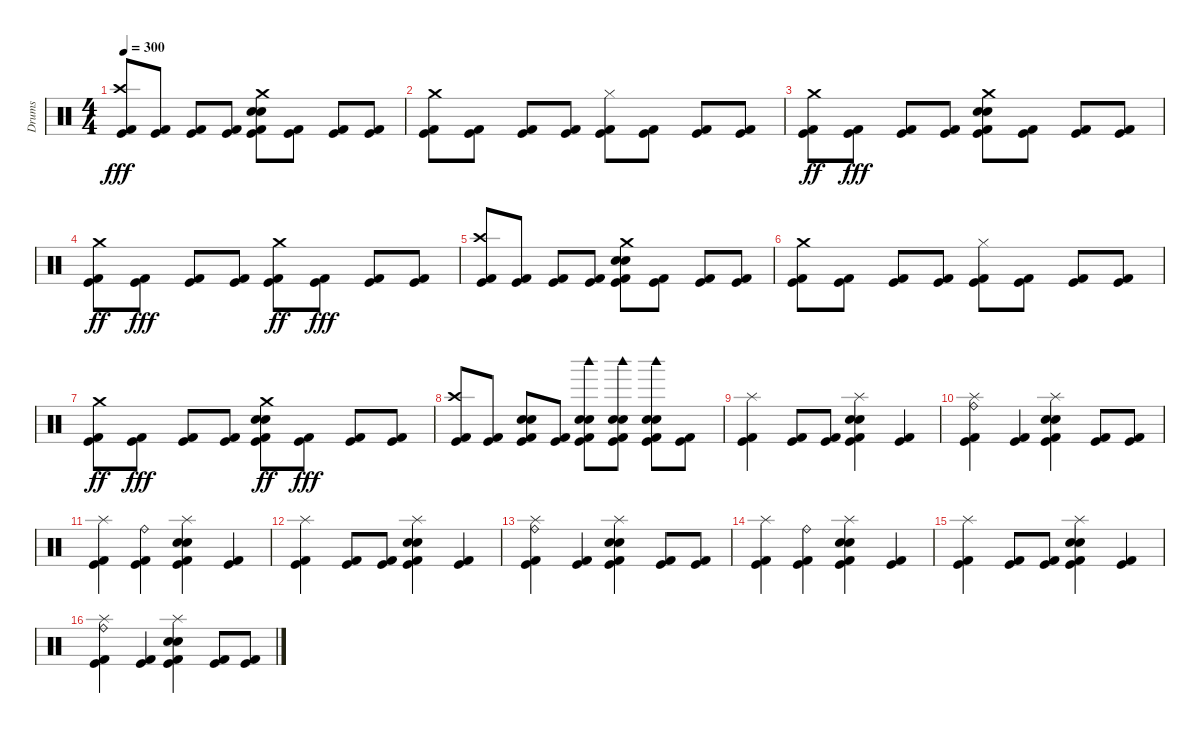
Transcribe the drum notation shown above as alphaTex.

\track ("Drums" "Drums") {instrument percussion}
\staff {score}
\articulation defaults
\ts (4 4)
\tempo 300
\clef neutral
\ks c
("Kick (hit) 2" "Crash high (hit)" "Kick (hit)").8{dy fff} ("Kick (hit) 2" "Kick (hit)").8 ("Kick (hit) 2" "Kick (hit)").8 ("Kick (hit) 2" "Kick (hit)").8 ("Kick (hit) 2" "Snare (hit) 2" "Electric Snare (hit)" "Crash medium (hit)" "Kick (hit)").8 ("Kick (hit) 2" "Kick (hit)").8 ("Kick (hit) 2" "Kick (hit)").8 ("Kick (hit) 2" "Kick (hit)").8 |
("Kick (hit) 2" "Crash medium (hit)" "Kick (hit)").8 ("Kick (hit) 2" "Kick (hit)").8 ("Kick (hit) 2" "Kick (hit)").8 ("Kick (hit) 2" "Kick (hit)").8 ("Kick (hit) 2" "Hi-Hat (closed)" "Kick (hit)").8 ("Kick (hit) 2" "Kick (hit)").8 ("Kick (hit) 2" "Kick (hit)").8 ("Kick (hit) 2" "Kick (hit)").8 |
("Kick (hit) 2" "Kick (hit)" "Crash medium (hit)").8{dy ff} ("Kick (hit) 2" "Kick (hit)").8{dy fff} ("Kick (hit) 2" "Kick (hit)").8 ("Kick (hit) 2" "Kick (hit)").8 ("Kick (hit) 2" "Crash medium (hit)" "Snare (hit) 2" "Electric Snare (hit)" "Kick (hit)").8 ("Kick (hit) 2" "Kick (hit)").8 ("Kick (hit) 2" "Kick (hit)").8 ("Kick (hit) 2" "Kick (hit)").8 |
("Kick (hit) 2" "Kick (hit)" "Crash medium (hit)").8{dy ff} ("Kick (hit) 2" "Kick (hit)").8{dy fff} ("Kick (hit) 2" "Kick (hit)").8 ("Kick (hit) 2" "Kick (hit)").8 ("Kick (hit) 2" "Kick (hit)" "Crash medium (hit)").8{dy ff} ("Kick (hit) 2" "Kick (hit)").8{dy fff} ("Kick (hit) 2" "Kick (hit)").8 ("Kick (hit) 2" "Kick (hit)").8 |
("Kick (hit) 2" "Kick (hit)" "Crash high (hit)").8 ("Kick (hit) 2" "Kick (hit)").8 ("Kick (hit) 2" "Kick (hit)").8 ("Kick (hit) 2" "Kick (hit)").8 ("Kick (hit) 2" "Kick (hit)" "Electric Snare (hit)" "Crash medium (hit)" "Snare (hit) 2").8 ("Kick (hit) 2" "Kick (hit)").8 ("Kick (hit) 2" "Kick (hit)").8 ("Kick (hit) 2" "Kick (hit)").8 |
("Kick (hit) 2" "Crash medium (hit)" "Kick (hit)").8 ("Kick (hit) 2" "Kick (hit)").8 ("Kick (hit) 2" "Kick (hit)").8 ("Kick (hit) 2" "Kick (hit)").8 ("Kick (hit) 2" "Hi-Hat (closed)" "Kick (hit)").8 ("Kick (hit) 2" "Kick (hit)").8 ("Kick (hit) 2" "Kick (hit)").8 ("Kick (hit) 2" "Kick (hit)").8 |
("Kick (hit) 2" "Kick (hit)" "Crash medium (hit)").8{dy ff} ("Kick (hit) 2" "Kick (hit)").8{dy fff} ("Kick (hit) 2" "Kick (hit)").8 ("Kick (hit) 2" "Kick (hit)").8 ("Kick (hit) 2" "Kick (hit)" "Snare (hit) 2" "Electric Snare (hit)" "Crash medium (hit)").8{dy ff} ("Kick (hit) 2" "Kick (hit)").8{dy fff} ("Kick (hit) 2" "Kick (hit)").8 ("Kick (hit) 2" "Kick (hit)").8 |
("Kick (hit) 2" "Crash high (hit)" "Kick (hit)").8 ("Kick (hit) 2" "Kick (hit)").8 ("Kick (hit) 2" "Electric Snare (hit)" "Snare (hit) 2" "Kick (hit)").8 ("Kick (hit) 2" "Kick (hit)").8 ("Kick (hit) 2" "Woodblock high (hit)" "Snare (hit) 2" "Electric Snare (hit)" "Kick (hit)").8 ("Kick (hit) 2" "Woodblock high (hit)" "Snare (hit) 2" "Electric Snare (hit)" "Kick (hit)").8 ("Kick (hit) 2" "Woodblock high (hit)" "Snare (hit) 2" "Electric Snare (hit)" "Kick (hit)").8 ("Kick (hit) 2" "Kick (hit)").8 |
("Kick (hit) 2" "Splash (hit)" "Kick (hit)").4 ("Kick (hit) 2" "Kick (hit)").8 ("Kick (hit) 2" "Kick (hit)").8 ("Kick (hit) 2" "Snare (hit) 2" "Electric Snare (hit)" "Splash (hit)" "Kick (hit)").4 ("Kick (hit) 2" "Kick (hit)").4 |
("Kick (hit) 2" "Ride (bell)" "Splash (hit)" "Kick (hit)").4 ("Kick (hit) 2" "Kick (hit)").4 ("Kick (hit) 2" "Electric Snare (hit)" "Snare (hit) 2" "Splash (hit)" "Kick (hit)").4 ("Kick (hit) 2" "Kick (hit)").8 ("Kick (hit) 2" "Kick (hit)").8 |
("Kick (hit) 2" "Splash (hit)" "Kick (hit)").4 ("Kick (hit) 2" "Ride (bell)" "Kick (hit)").4 ("Kick (hit) 2" "Snare (hit) 2" "Electric Snare (hit)" "Splash (hit)" "Kick (hit)").4 ("Kick (hit) 2" "Kick (hit)").4 |
("Kick (hit) 2" "Splash (hit)" "Kick (hit)").4 ("Kick (hit) 2" "Kick (hit)").8 ("Kick (hit) 2" "Kick (hit)").8 ("Kick (hit) 2" "Snare (hit) 2" "Electric Snare (hit)" "Splash (hit)" "Kick (hit)").4 ("Kick (hit) 2" "Kick (hit)").4 |
("Kick (hit) 2" "Ride (bell)" "Splash (hit)" "Kick (hit)").4 ("Kick (hit) 2" "Kick (hit)").4 ("Kick (hit) 2" "Electric Snare (hit)" "Snare (hit) 2" "Splash (hit)" "Kick (hit)").4 ("Kick (hit) 2" "Kick (hit)").8 ("Kick (hit) 2" "Kick (hit)").8 |
("Kick (hit) 2" "Splash (hit)" "Kick (hit)").4 ("Kick (hit) 2" "Ride (bell)" "Kick (hit)").4 ("Kick (hit) 2" "Snare (hit) 2" "Electric Snare (hit)" "Splash (hit)" "Kick (hit)").4 ("Kick (hit) 2" "Kick (hit)").4 |
("Kick (hit) 2" "Splash (hit)" "Kick (hit)").4 ("Kick (hit) 2" "Kick (hit)").8 ("Kick (hit) 2" "Kick (hit)").8 ("Kick (hit) 2" "Snare (hit) 2" "Electric Snare (hit)" "Splash (hit)" "Kick (hit)").4 ("Kick (hit) 2" "Kick (hit)").4 |
("Kick (hit) 2" "Ride (bell)" "Splash (hit)" "Kick (hit)").4 ("Kick (hit) 2" "Kick (hit)").4 ("Kick (hit) 2" "Electric Snare (hit)" "Snare (hit) 2" "Splash (hit)" "Kick (hit)").4 ("Kick (hit) 2" "Kick (hit)").8 ("Kick (hit) 2" "Kick (hit)").8
